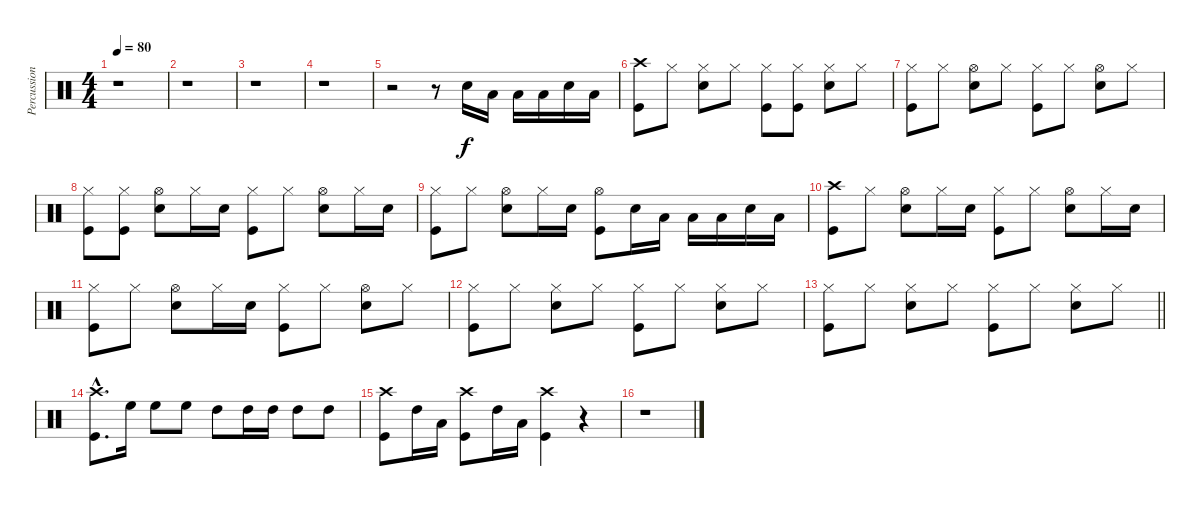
\track ("Percussion" "Percussion") {instrument percussion}
\staff {score}
\articulation defaults
\ts (4 4)
\tempo 80
\clef neutral
\ks c
r.1{dy f} |
r.1 |
r.1 |
r.1 |
r.2 r.8 "Snare (hit) 2".16 "Low Tom (hit)".16 "Low Tom (hit)".16 "Low Tom (hit)".16 "Snare (hit) 2".16 "Low Tom (hit)".16 |
("Crash high (hit)" "Kick (hit)").8 "Hi-Hat (closed)".8 ("Hi-Hat (closed)" "Snare (hit) 2").8 "Hi-Hat (closed)".8 ("Hi-Hat (closed)" "Kick (hit)").8 ("Hi-Hat (closed)" "Kick (hit)").8 ("Hi-Hat (closed)" "Snare (hit) 2").8 "Hi-Hat (closed)".8 |
("Hi-Hat (closed)" "Kick (hit)").8 "Hi-Hat (closed)".8 ("Hi-Hat (open)" "Snare (hit) 2").8 "Hi-Hat (closed)".8 ("Hi-Hat (closed)" "Kick (hit)").8 "Hi-Hat (closed)".8 ("Hi-Hat (open)" "Snare (hit) 2").8 "Hi-Hat (closed)".8 |
("Hi-Hat (closed)" "Kick (hit)").8 ("Hi-Hat (closed)" "Kick (hit)").8 ("Hi-Hat (open)" "Snare (hit) 2").8 "Hi-Hat (closed)".16 "Snare (hit) 2".16 ("Hi-Hat (closed)" "Kick (hit)").8 "Hi-Hat (closed)".8 ("Hi-Hat (open)" "Snare (hit) 2").8 "Hi-Hat (closed)".16 "Snare (hit) 2".16 |
("Hi-Hat (closed)" "Kick (hit)").8 "Hi-Hat (closed)".8 ("Hi-Hat (open)" "Snare (hit) 2").8 "Hi-Hat (closed)".16 "Snare (hit) 2".16 ("Hi-Hat (open)" "Kick (hit)").8 "Snare (hit) 2".16 "Low Tom (hit)".16 "Low Tom (hit)".16 "Low Tom (hit)".16 "Snare (hit) 2".16 "Low Tom (hit)".16 |
("Crash high (hit)" "Kick (hit)").8 "Hi-Hat (closed)".8 ("Hi-Hat (open)" "Snare (hit) 2").8 "Hi-Hat (closed)".16 "Snare (hit) 2".16 ("Hi-Hat (closed)" "Kick (hit)").8 "Hi-Hat (closed)".8 ("Hi-Hat (open)" "Snare (hit) 2").8 "Hi-Hat (closed)".16 "Snare (hit) 2".16 |
("Hi-Hat (closed)" "Kick (hit)").8 "Hi-Hat (closed)".8 ("Hi-Hat (open)" "Snare (hit) 2").8 "Hi-Hat (closed)".16 "Snare (hit) 2".16 ("Hi-Hat (closed)" "Kick (hit)").8 "Hi-Hat (closed)".8 ("Hi-Hat (open)" "Snare (hit) 2").8 "Hi-Hat (closed)".8 |
("Hi-Hat (closed)" "Kick (hit)").8 "Hi-Hat (closed)".8 ("Hi-Hat (closed)" "Snare (hit) 2").8 "Hi-Hat (closed)".8 ("Hi-Hat (closed)" "Kick (hit)").8 "Hi-Hat (closed)".8 ("Hi-Hat (closed)" "Snare (hit) 2").8 "Hi-Hat (closed)".8 |
\barLineRight lightlight
("Hi-Hat (closed)" "Kick (hit)").8 "Hi-Hat (closed)".8 ("Hi-Hat (closed)" "Snare (hit) 2").8 "Hi-Hat (closed)".8 ("Hi-Hat (closed)" "Kick (hit)").8 "Hi-Hat (closed)".8 ("Hi-Hat (closed)" "Snare (hit) 2").8 "Hi-Hat (closed)".8 |
("Crash high (hit)"{hac} "Kick (hit)"{hac}).8{d} "High Floor Tom (hit)".16 "High Floor Tom (hit)".8 "High Floor Tom (hit)".8 "High Tom (hit)".8 "High Tom (hit)".16 "High Tom (hit)".16 "High Tom (hit)".8 "High Tom (hit)".8 |
("Crash high (hit)" "Kick (hit)").8 "High Tom (hit)".16 "Low Tom (hit)".16 ("Crash high (hit)" "Kick (hit)").8 "High Tom (hit)".16 "Low Tom (hit)".16 ("Crash high (hit)" "Kick (hit)").4 r.4 |
r.1
